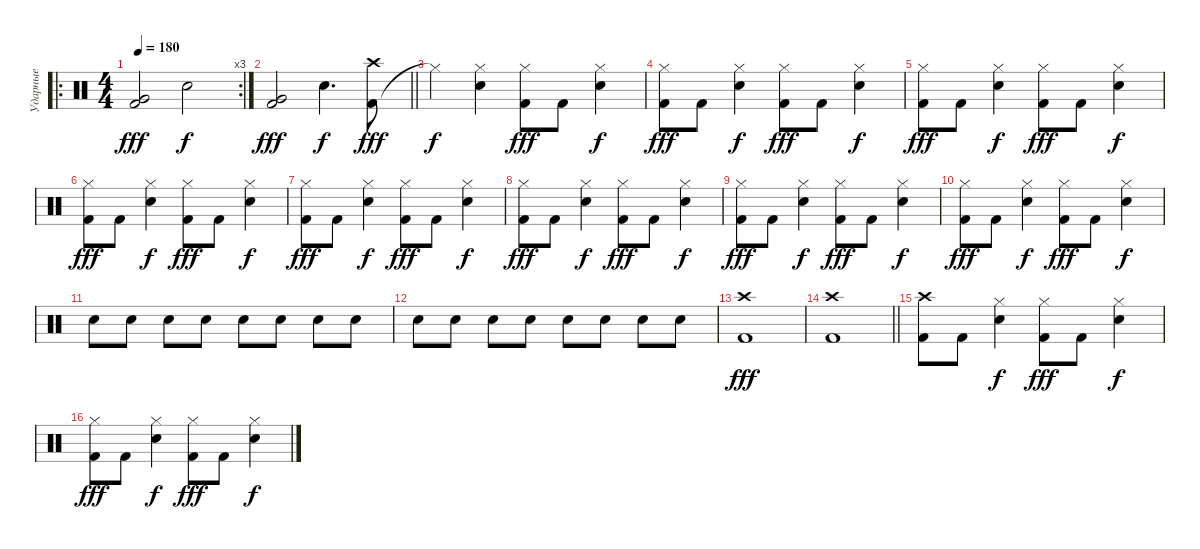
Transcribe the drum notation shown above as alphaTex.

\track ("Ударные" "Ударные") {instrument percussion}
\staff
\articulation defaults
\ro
\rc 3
\ts (4 4)
\tempo 180
\clef neutral
\ks c
("Kick (hit) 2" "Very Low Tom (hit)").2{dy fff} "Snare (hit) 2".2{dy f} |
\barLineRight lightlight
("Kick (hit) 2" "Very Low Tom (hit)").2{dy fff} "Snare (hit) 2".4{d dy f} ("Kick (hit) 2" "Crash high (hit)").8{dy fff} |
"Hi-Hat (closed)"{t}.4{dy f} ("Snare (hit) 2" "Hi-Hat (closed)").4 ("Kick (hit) 2" "Hi-Hat (closed)").8{dy fff} "Kick (hit) 2".8 ("Snare (hit) 2" "Hi-Hat (closed)").4{dy f} |
("Kick (hit) 2" "Hi-Hat (closed)").8{dy fff} "Kick (hit) 2".8 ("Snare (hit) 2" "Hi-Hat (closed)").4{dy f} ("Kick (hit) 2" "Hi-Hat (closed)").8{dy fff} "Kick (hit) 2".8 ("Snare (hit) 2" "Hi-Hat (closed)").4{dy f} |
("Kick (hit) 2" "Hi-Hat (closed)").8{dy fff} "Kick (hit) 2".8 ("Snare (hit) 2" "Hi-Hat (closed)").4{dy f} ("Kick (hit) 2" "Hi-Hat (closed)").8{dy fff} "Kick (hit) 2".8 ("Snare (hit) 2" "Hi-Hat (closed)").4{dy f} |
("Kick (hit) 2" "Hi-Hat (closed)").8{dy fff} "Kick (hit) 2".8 ("Snare (hit) 2" "Hi-Hat (closed)").4{dy f} ("Kick (hit) 2" "Hi-Hat (closed)").8{dy fff} "Kick (hit) 2".8 ("Snare (hit) 2" "Hi-Hat (closed)").4{dy f} |
("Kick (hit) 2" "Hi-Hat (closed)").8{dy fff} "Kick (hit) 2".8 ("Snare (hit) 2" "Hi-Hat (closed)").4{dy f} ("Kick (hit) 2" "Hi-Hat (closed)").8{dy fff} "Kick (hit) 2".8 ("Snare (hit) 2" "Hi-Hat (closed)").4{dy f} |
("Kick (hit) 2" "Hi-Hat (closed)").8{dy fff} "Kick (hit) 2".8 ("Snare (hit) 2" "Hi-Hat (closed)").4{dy f} ("Kick (hit) 2" "Hi-Hat (closed)").8{dy fff} "Kick (hit) 2".8 ("Snare (hit) 2" "Hi-Hat (closed)").4{dy f} |
("Kick (hit) 2" "Hi-Hat (closed)").8{dy fff} "Kick (hit) 2".8 ("Snare (hit) 2" "Hi-Hat (closed)").4{dy f} ("Kick (hit) 2" "Hi-Hat (closed)").8{dy fff} "Kick (hit) 2".8 ("Snare (hit) 2" "Hi-Hat (closed)").4{dy f} |
("Kick (hit) 2" "Hi-Hat (closed)").8{dy fff} "Kick (hit) 2".8 ("Snare (hit) 2" "Hi-Hat (closed)").4{dy f} ("Kick (hit) 2" "Hi-Hat (closed)").8{dy fff} "Kick (hit) 2".8 ("Snare (hit) 2" "Hi-Hat (closed)").4{dy f} |
"Snare (hit) 2".8 "Snare (hit) 2".8 "Snare (hit) 2".8 "Snare (hit) 2".8 "Snare (hit) 2".8 "Snare (hit) 2".8 "Snare (hit) 2".8 "Snare (hit) 2".8 |
"Snare (hit) 2".8 "Snare (hit) 2".8 "Snare (hit) 2".8 "Snare (hit) 2".8 "Snare (hit) 2".8 "Snare (hit) 2".8 "Snare (hit) 2".8 "Snare (hit) 2".8 |
("Kick (hit) 2" "Crash high (hit)").1{dy fff} |
\barLineRight lightlight
("Kick (hit) 2" "Crash high (hit)").1 |
("Kick (hit) 2" "Crash high (hit)").8 "Kick (hit) 2".8 ("Snare (hit) 2" "Hi-Hat (closed)").4{dy f} ("Kick (hit) 2" "Hi-Hat (closed)").8{dy fff} "Kick (hit) 2".8 ("Snare (hit) 2" "Hi-Hat (closed)").4{dy f} |
("Kick (hit) 2" "Hi-Hat (closed)").8{dy fff} "Kick (hit) 2".8 ("Snare (hit) 2" "Hi-Hat (closed)").4{dy f} ("Kick (hit) 2" "Hi-Hat (closed)").8{dy fff} "Kick (hit) 2".8 ("Snare (hit) 2" "Hi-Hat (closed)").4{dy f}
